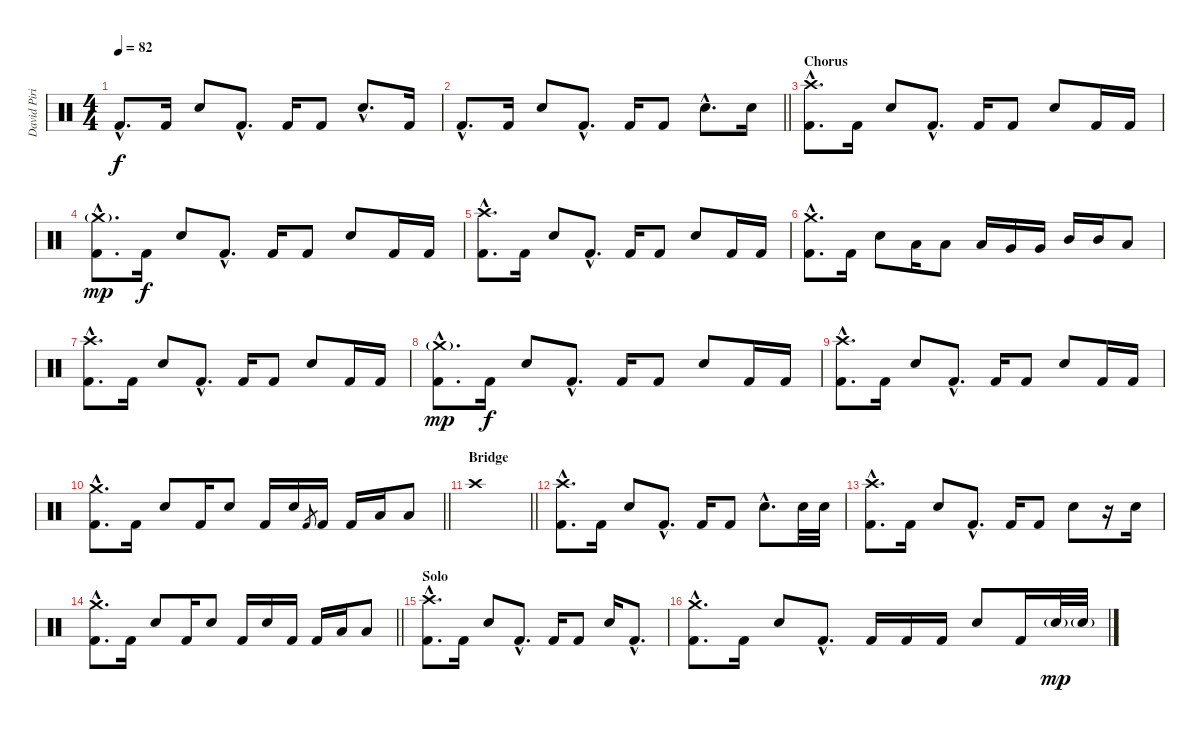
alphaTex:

\track ("David Piribauer (Drums)" "David Piri") {instrument percussion}
\staff {score}
\articulation defaults
\ts (4 4)
\tempo 82
\clef neutral
\ks c "Kick (hit) 2"{hac}.8{d dy f} "Kick (hit) 2".16 "Electric Snare (hit)".8 "Kick (hit) 2"{hac}.8{d} "Kick (hit) 2".16 "Kick (hit) 2".8 "Electric Snare (hit)"{hac}.8{d} "Kick (hit) 2".16
|
\barLineRight lightlight "Kick (hit) 2"{hac}.8{d} "Kick (hit) 2".16 "Electric Snare (hit)".8 "Kick (hit) 2"{hac}.8{d} "Kick (hit) 2".16 "Kick (hit) 2".8 "Electric Snare (hit)"{hac}.8{d} "Electric Snare (hit)".16
|
\section ("" "Chorus")
("Crash high (hit)"{hac} "Kick (hit) 2"{hac}).8{d} "Kick (hit) 2".16 "Electric Snare (hit)".8 "Kick (hit) 2"{hac}.8{d} "Kick (hit) 2".16 "Kick (hit) 2".8 "Electric Snare (hit)".8 "Kick (hit) 2".16 "Kick (hit) 2".16 |
("Crash medium (hit)"{g hac} "Kick (hit) 2"{hac}).8{d dy mp} "Kick (hit) 2".16{dy f} "Electric Snare (hit)".8 "Kick (hit) 2"{hac}.8{d} "Kick (hit) 2".16 "Kick (hit) 2".8 "Electric Snare (hit)".8 "Kick (hit) 2".16 "Kick (hit) 2".16 |
("Crash high (hit)"{hac} "Kick (hit) 2"{hac}).8{d} "Kick (hit) 2".16 "Electric Snare (hit)".8 "Kick (hit) 2"{hac}.8{d} "Kick (hit) 2".16 "Kick (hit) 2".8 "Electric Snare (hit)".8 "Kick (hit) 2".16 "Kick (hit) 2".16 |
("Crash medium (hit)"{hac} "Kick (hit) 2"{hac}).8{d} "Kick (hit) 2".16 "Electric Snare (hit)".8 "Low Tom (hit)".16 "Low Tom (hit)".8 "Low Tom (hit)".16 "Very Low Tom (hit)".16 "Very Low Tom (hit)".16 "Mid Tom (hit)".16 "Mid Tom (hit)".16 "Low Tom (hit)".8 |
("Crash high (hit)"{hac} "Kick (hit) 2"{hac}).8{d} "Kick (hit) 2".16 "Electric Snare (hit)".8 "Kick (hit) 2"{hac}.8{d} "Kick (hit) 2".16 "Kick (hit) 2".8 "Electric Snare (hit)".8 "Kick (hit) 2".16 "Kick (hit) 2".16 |
("Crash medium (hit)"{g hac} "Kick (hit) 2"{hac}).8{d dy mp} "Kick (hit) 2".16{dy f} "Electric Snare (hit)".8 "Kick (hit) 2"{hac}.8{d} "Kick (hit) 2".16 "Kick (hit) 2".8 "Electric Snare (hit)".8 "Kick (hit) 2".16 "Kick (hit) 2".16 |
("Crash high (hit)"{hac} "Kick (hit) 2"{hac}).8{d} "Kick (hit) 2".16 "Electric Snare (hit)".8 "Kick (hit) 2"{hac}.8{d} "Kick (hit) 2".16 "Kick (hit) 2".8 "Electric Snare (hit)".8 "Kick (hit) 2".16 "Kick (hit) 2".16 |
\barLineRight lightlight
("Crash medium (hit)"{hac} "Kick (hit) 2"{hac}).8{d} "Kick (hit) 2".16 "Electric Snare (hit)".8 "Kick (hit) 2".16 "Electric Snare (hit)".8 "Kick (hit) 2".16 "Electric Snare (hit)".16 "Kick (hit) 2".8{gr} "Kick (hit) 2".16 "Kick (hit) 2".16 "Low Floor Tom (hit)".16 "Low Floor Tom (hit)".8 |
\section ("" "Bridge")
\barLineRight lightlight "Crash high (hit)".1
|
("Crash high (hit)"{hac} "Kick (hit) 2"{hac}).8{d} "Kick (hit) 2".16 "Electric Snare (hit)".8 "Kick (hit) 2"{hac}.8{d} "Kick (hit) 2".16 "Kick (hit) 2".8 "Electric Snare (hit)"{hac}.8{d} "Electric Snare (hit)".32 "Electric Snare (hit)".32 |
("Crash high (hit)"{hac} "Kick (hit) 2"{hac}).8{d} "Kick (hit) 2".16 "Electric Snare (hit)".8 "Kick (hit) 2"{hac}.8{d} "Kick (hit) 2".16 "Kick (hit) 2".8 "Electric Snare (hit)".8 r.16 "Electric Snare (hit)".16 |
\barLineRight lightlight
("Crash medium (hit)"{hac} "Kick (hit) 2"{hac}).8{d} "Kick (hit) 2".16 "Electric Snare (hit)".8 "Kick (hit) 2".16 "Electric Snare (hit)".8 "Kick (hit) 2".16 "Electric Snare (hit)".16 "Kick (hit) 2".16 "Kick (hit) 2".16 "Low Floor Tom (hit)".16 "Low Floor Tom (hit)".8 |
\section ("" "Solo")
("Crash high (hit)"{hac} "Kick (hit) 2"{hac}).8{d} "Kick (hit) 2".16 "Electric Snare (hit)".8 "Kick (hit) 2"{hac}.8{d} "Kick (hit) 2".16 "Kick (hit) 2".8 "Electric Snare (hit)".16 "Kick (hit) 2"{hac}.8{d} |
("Crash medium (hit)"{hac} "Kick (hit) 2"{hac}).8{d} "Kick (hit) 2".16 "Electric Snare (hit)".8 "Kick (hit) 2"{hac}.8{d} "Kick (hit) 2".16 "Kick (hit) 2".16 "Kick (hit) 2".16 "Electric Snare (hit)".8 "Kick (hit) 2".16 "Electric Snare (hit)"{g}.32{dy mp} "Electric Snare (hit)"{g}.32
